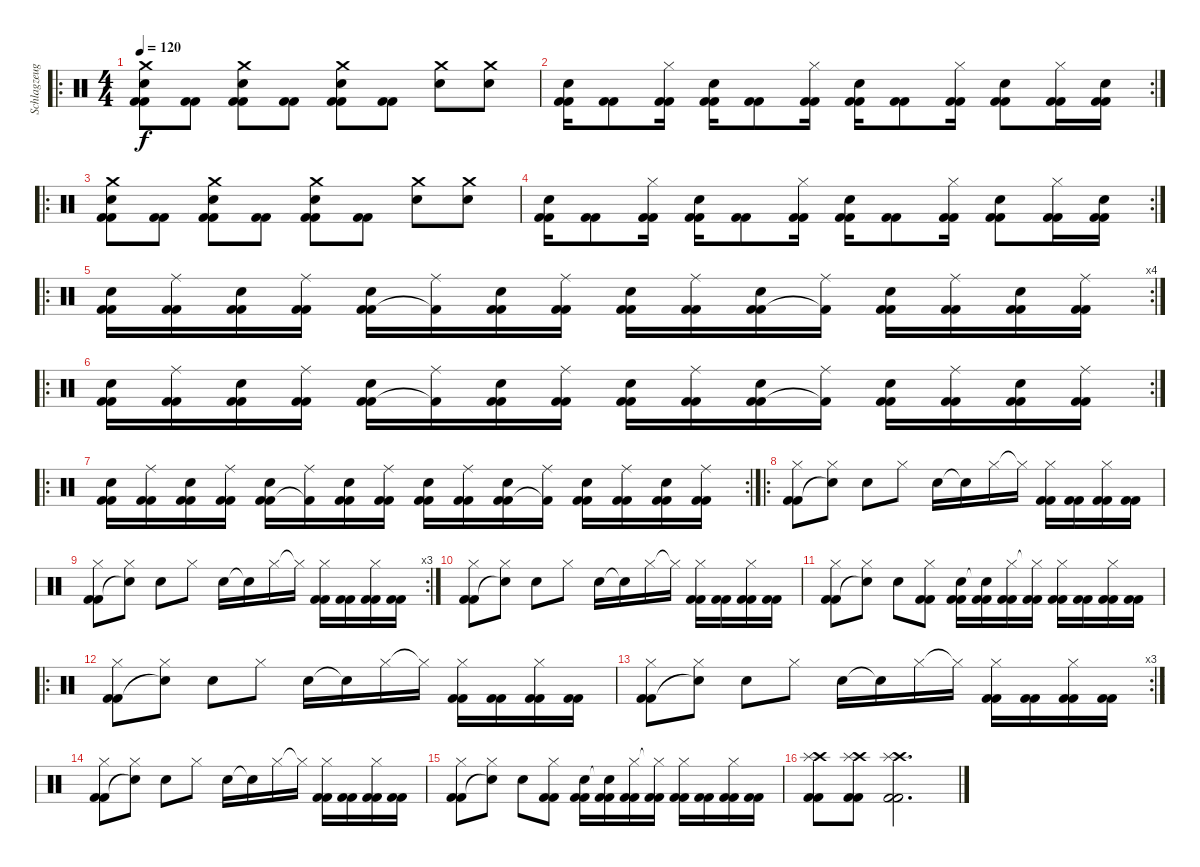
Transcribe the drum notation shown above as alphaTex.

\track ("Schlagzeug" "Schlagzeug") {instrument percussion}
\staff {score}
\articulation defaults
\ro
\ts (4 4)
\tempo 120
\clef neutral
\ks c
("Crash medium (hit)" "Snare (hit) 2" "Kick (hit) 2" "Kick (hit) 2").8{dy f} ("Kick (hit) 2" "Kick (hit) 2").8 ("Crash medium (hit)" "Snare (hit) 2" "Kick (hit) 2" "Kick (hit) 2").8 ("Kick (hit) 2" "Kick (hit) 2").8 ("Crash medium (hit)" "Snare (hit) 2" "Kick (hit) 2" "Kick (hit) 2").8 ("Kick (hit) 2" "Kick (hit) 2").8 ("Crash medium (hit)" "Snare (hit) 2").8 ("Crash medium (hit)" "Snare (hit) 2").8 |
\rc 2
("Snare (hit) 2" "Kick (hit) 2" "Kick (hit) 2").16 ("Kick (hit) 2" "Kick (hit) 2").8 ("Hi-Hat (closed)" "Kick (hit) 2" "Kick (hit) 2").16 ("Snare (hit) 2" "Kick (hit) 2" "Kick (hit) 2").16 ("Kick (hit) 2" "Kick (hit) 2").8 ("Hi-Hat (closed)" "Kick (hit) 2" "Kick (hit) 2").16 ("Snare (hit) 2" "Kick (hit) 2" "Kick (hit) 2").16 ("Kick (hit) 2" "Kick (hit) 2").8 ("Hi-Hat (closed)" "Kick (hit) 2" "Kick (hit) 2").16 ("Snare (hit) 2" "Kick (hit) 2" "Kick (hit) 2").8 ("Hi-Hat (closed)" "Kick (hit) 2" "Kick (hit) 2").16 ("Snare (hit) 2" "Kick (hit) 2" "Kick (hit) 2").16 |
\ro
("Crash medium (hit)" "Snare (hit) 2" "Kick (hit) 2" "Kick (hit) 2").8 ("Kick (hit) 2" "Kick (hit) 2").8 ("Crash medium (hit)" "Snare (hit) 2" "Kick (hit) 2" "Kick (hit) 2").8 ("Kick (hit) 2" "Kick (hit) 2").8 ("Crash medium (hit)" "Snare (hit) 2" "Kick (hit) 2" "Kick (hit) 2").8 ("Kick (hit) 2" "Kick (hit) 2").8 ("Crash medium (hit)" "Snare (hit) 2").8 ("Crash medium (hit)" "Snare (hit) 2").8 |
\rc 2
("Snare (hit) 2" "Kick (hit) 2" "Kick (hit) 2").16 ("Kick (hit) 2" "Kick (hit) 2").8 ("Hi-Hat (closed)" "Kick (hit) 2" "Kick (hit) 2").16 ("Snare (hit) 2" "Kick (hit) 2" "Kick (hit) 2").16 ("Kick (hit) 2" "Kick (hit) 2").8 ("Hi-Hat (closed)" "Kick (hit) 2" "Kick (hit) 2").16 ("Snare (hit) 2" "Kick (hit) 2" "Kick (hit) 2").16 ("Kick (hit) 2" "Kick (hit) 2").8 ("Hi-Hat (closed)" "Kick (hit) 2" "Kick (hit) 2").16 ("Snare (hit) 2" "Kick (hit) 2" "Kick (hit) 2").8 ("Hi-Hat (closed)" "Kick (hit) 2" "Kick (hit) 2").16 ("Snare (hit) 2" "Kick (hit) 2" "Kick (hit) 2").16 |
\ro
\rc 4
("Snare (hit) 2" "Kick (hit) 2" "Kick (hit) 2").16 ("Ride (middle)" "Kick (hit) 2" "Kick (hit) 2").16 ("Snare (hit) 2" "Kick (hit) 2" "Kick (hit) 2").16 ("Ride (middle)" "Kick (hit) 2" "Kick (hit) 2").16 ("Snare (hit) 2" "Kick (hit) 2" "Kick (hit) 2").16 ("Ride (middle)" "Kick (hit) 2"{t}).16 ("Snare (hit) 2" "Kick (hit) 2" "Kick (hit) 2").16 ("Ride (middle)" "Kick (hit) 2" "Kick (hit) 2").16 ("Snare (hit) 2" "Kick (hit) 2" "Kick (hit) 2").16 ("Ride (middle)" "Kick (hit) 2" "Kick (hit) 2").16 ("Snare (hit) 2" "Kick (hit) 2" "Kick (hit) 2").16 ("Ride (middle)" "Kick (hit) 2"{t}).16 ("Snare (hit) 2" "Kick (hit) 2" "Kick (hit) 2").16 ("Ride (middle)" "Kick (hit) 2" "Kick (hit) 2").16 ("Snare (hit) 2" "Kick (hit) 2" "Kick (hit) 2").16 ("Ride (middle)" "Kick (hit) 2" "Kick (hit) 2").16 |
\ro
\rc 2
("Snare (hit) 2" "Kick (hit) 2" "Kick (hit) 2").16 ("Ride (middle)" "Kick (hit) 2" "Kick (hit) 2").16 ("Snare (hit) 2" "Kick (hit) 2" "Kick (hit) 2").16 ("Ride (middle)" "Kick (hit) 2" "Kick (hit) 2").16 ("Snare (hit) 2" "Kick (hit) 2" "Kick (hit) 2").16 ("Ride (middle)" "Kick (hit) 2"{t}).16 ("Snare (hit) 2" "Kick (hit) 2" "Kick (hit) 2").16 ("Ride (middle)" "Kick (hit) 2" "Kick (hit) 2").16 ("Snare (hit) 2" "Kick (hit) 2" "Kick (hit) 2").16 ("Ride (middle)" "Kick (hit) 2" "Kick (hit) 2").16 ("Snare (hit) 2" "Kick (hit) 2" "Kick (hit) 2").16 ("Ride (middle)" "Kick (hit) 2"{t}).16 ("Snare (hit) 2" "Kick (hit) 2" "Kick (hit) 2").16 ("Ride (middle)" "Kick (hit) 2" "Kick (hit) 2").16 ("Snare (hit) 2" "Kick (hit) 2" "Kick (hit) 2").16 ("Ride (middle)" "Kick (hit) 2" "Kick (hit) 2").16 |
\ro
\rc 2
("Snare (hit) 2" "Kick (hit) 2" "Kick (hit) 2").16 ("Ride (middle)" "Kick (hit) 2" "Kick (hit) 2").16 ("Snare (hit) 2" "Kick (hit) 2" "Kick (hit) 2").16 ("Ride (middle)" "Kick (hit) 2" "Kick (hit) 2").16 ("Snare (hit) 2" "Kick (hit) 2" "Kick (hit) 2").16 ("Ride (middle)" "Kick (hit) 2"{t}).16 ("Snare (hit) 2" "Kick (hit) 2" "Kick (hit) 2").16 ("Ride (middle)" "Kick (hit) 2" "Kick (hit) 2").16 ("Snare (hit) 2" "Kick (hit) 2" "Kick (hit) 2").16 ("Ride (middle)" "Kick (hit) 2" "Kick (hit) 2").16 ("Snare (hit) 2" "Kick (hit) 2" "Kick (hit) 2").16 ("Ride (middle)" "Kick (hit) 2"{t}).16 ("Snare (hit) 2" "Kick (hit) 2" "Kick (hit) 2").16 ("Ride (middle)" "Kick (hit) 2" "Kick (hit) 2").16 ("Snare (hit) 2" "Kick (hit) 2" "Kick (hit) 2").16 ("Ride (middle)" "Kick (hit) 2" "Kick (hit) 2").16 |
\ro
("Hi-Hat (closed)" "Kick (hit) 2" "Kick (hit) 2").8 ("Hi-Hat (closed)" "Snare (hit)"{t}).8 "Snare (hit) 2".8 "Hi-Hat (closed)".8 "Snare (hit) 2".16 "Snare (hit)"{t}.16 "Hi-Hat (closed)".16 "Hi-Hat (closed)"{t}.16 ("Hi-Hat (closed)" "Kick (hit) 2" "Kick (hit) 2").16 ("Kick (hit) 2" "Kick (hit) 2").16 ("Hi-Hat (closed)" "Kick (hit) 2" "Kick (hit) 2").16 ("Kick (hit) 2" "Kick (hit) 2").16 |
\rc 3
("Hi-Hat (closed)" "Kick (hit) 2" "Kick (hit) 2").8 ("Hi-Hat (closed)" "Snare (hit)"{t}).8 "Snare (hit) 2".8 "Hi-Hat (closed)".8 "Snare (hit) 2".16 "Snare (hit)"{t}.16 "Hi-Hat (closed)".16 "Hi-Hat (closed)"{t}.16 ("Hi-Hat (closed)" "Kick (hit) 2" "Kick (hit) 2").16 ("Kick (hit) 2" "Kick (hit) 2").16 ("Hi-Hat (closed)" "Kick (hit) 2" "Kick (hit) 2").16 ("Kick (hit) 2" "Kick (hit) 2").16 |
("Hi-Hat (closed)" "Kick (hit) 2" "Kick (hit) 2").8 ("Hi-Hat (closed)" "Snare (hit)"{t}).8 "Snare (hit) 2".8 "Hi-Hat (closed)".8 "Snare (hit) 2".16 "Snare (hit)"{t}.16 "Hi-Hat (closed)".16 "Hi-Hat (closed)"{t}.16 ("Hi-Hat (closed)" "Kick (hit) 2" "Kick (hit) 2").16 ("Kick (hit) 2" "Kick (hit) 2").16 ("Hi-Hat (closed)" "Kick (hit) 2" "Kick (hit) 2").16 ("Kick (hit) 2" "Kick (hit) 2").16 |
("Hi-Hat (closed)" "Kick (hit) 2" "Kick (hit) 2").8 ("Hi-Hat (closed)" "Snare (hit)"{t}).8 "Snare (hit) 2".8 ("Hi-Hat (closed)" "Kick (hit) 2" "Kick (hit) 2").8 ("Snare (hit) 2" "Kick (hit) 2" "Kick (hit) 2").16 ("Snare (hit)"{t} "Kick (hit) 2" "Kick (hit) 2").16 ("Hi-Hat (closed)" "Kick (hit) 2" "Kick (hit) 2").16 ("Hi-Hat (closed)"{t} "Kick (hit) 2" "Kick (hit) 2").16 ("Hi-Hat (closed)" "Kick (hit) 2" "Kick (hit) 2").16 ("Kick (hit) 2" "Kick (hit) 2").16 ("Hi-Hat (closed)" "Kick (hit) 2" "Kick (hit) 2").16 ("Kick (hit) 2" "Kick (hit) 2").16 |
\ro
("Hi-Hat (closed)" "Kick (hit) 2" "Kick (hit) 2").8 ("Hi-Hat (closed)" "Snare (hit)"{t}).8 "Snare (hit) 2".8 "Hi-Hat (closed)".8 "Snare (hit) 2".16 "Snare (hit)"{t}.16 "Hi-Hat (closed)".16 "Hi-Hat (closed)"{t}.16 ("Hi-Hat (closed)" "Kick (hit) 2" "Kick (hit) 2").16 ("Kick (hit) 2" "Kick (hit) 2").16 ("Hi-Hat (closed)" "Kick (hit) 2" "Kick (hit) 2").16 ("Kick (hit) 2" "Kick (hit) 2").16 |
\rc 3
("Hi-Hat (closed)" "Kick (hit) 2" "Kick (hit) 2").8 ("Hi-Hat (closed)" "Snare (hit)"{t}).8 "Snare (hit) 2".8 "Hi-Hat (closed)".8 "Snare (hit) 2".16 "Snare (hit)"{t}.16 "Hi-Hat (closed)".16 "Hi-Hat (closed)"{t}.16 ("Hi-Hat (closed)" "Kick (hit) 2" "Kick (hit) 2").16 ("Kick (hit) 2" "Kick (hit) 2").16 ("Hi-Hat (closed)" "Kick (hit) 2" "Kick (hit) 2").16 ("Kick (hit) 2" "Kick (hit) 2").16 |
("Hi-Hat (closed)" "Kick (hit) 2" "Kick (hit) 2").8 ("Hi-Hat (closed)" "Snare (hit)"{t}).8 "Snare (hit) 2".8 "Hi-Hat (closed)".8 "Snare (hit) 2".16 "Snare (hit)"{t}.16 "Hi-Hat (closed)".16 "Hi-Hat (closed)"{t}.16 ("Hi-Hat (closed)" "Kick (hit) 2" "Kick (hit) 2").16 ("Kick (hit) 2" "Kick (hit) 2").16 ("Hi-Hat (closed)" "Kick (hit) 2" "Kick (hit) 2").16 ("Kick (hit) 2" "Kick (hit) 2").16 |
("Hi-Hat (closed)" "Kick (hit) 2" "Kick (hit) 2").8 ("Hi-Hat (closed)" "Snare (hit)"{t}).8 "Snare (hit) 2".8 ("Hi-Hat (closed)" "Kick (hit) 2" "Kick (hit) 2").8 ("Snare (hit) 2" "Kick (hit) 2" "Kick (hit) 2").16 ("Snare (hit)"{t} "Kick (hit) 2" "Kick (hit) 2").16 ("Hi-Hat (closed)" "Kick (hit) 2" "Kick (hit) 2").16 ("Hi-Hat (closed)"{t} "Kick (hit) 2" "Kick (hit) 2").16 ("Hi-Hat (closed)" "Kick (hit) 2" "Kick (hit) 2").16 ("Kick (hit) 2" "Kick (hit) 2").16 ("Hi-Hat (closed)" "Kick (hit) 2" "Kick (hit) 2").16 ("Kick (hit) 2" "Kick (hit) 2").16 |
("Crash high (hit)" "Splash (hit)" "Kick (hit) 2" "Kick (hit) 2").8 ("Crash high (hit)" "Splash (hit)" "Kick (hit) 2" "Kick (hit) 2").8 ("Crash high (hit)" "Splash (hit)" "Kick (hit) 2" "Kick (hit) 2").2{d}
